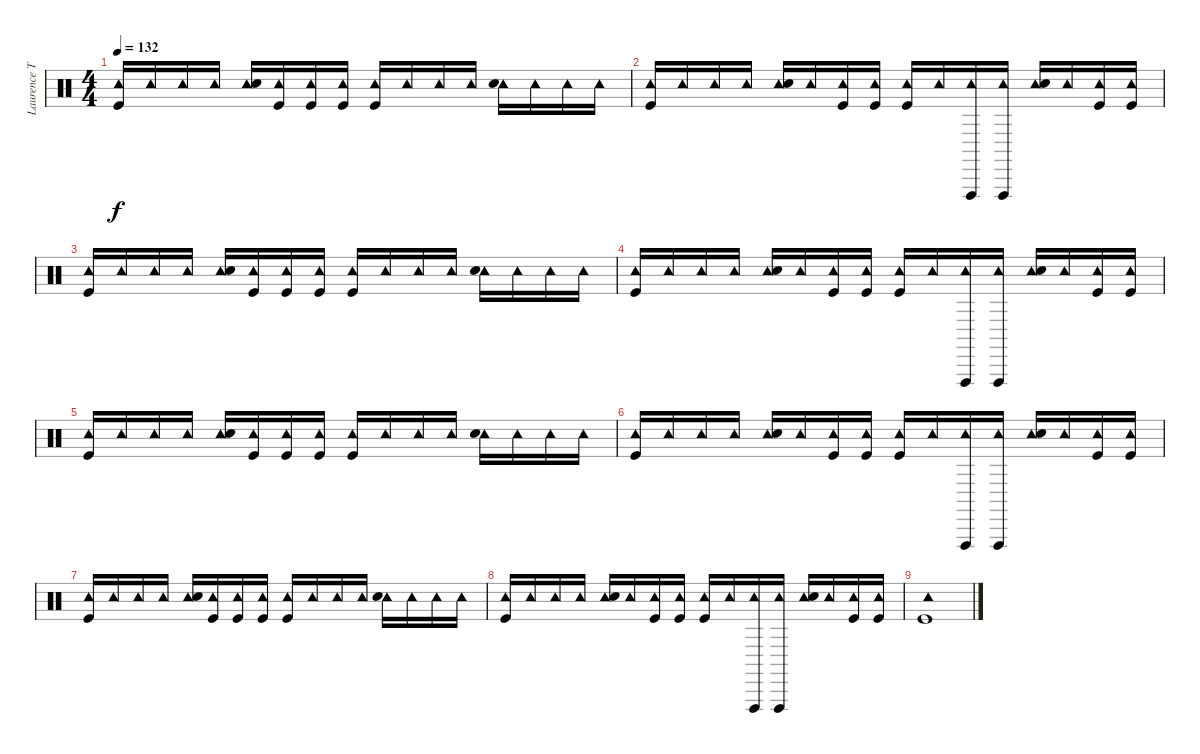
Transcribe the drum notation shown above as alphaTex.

\track ("Laurence Tolhurst (drums)" "Laurence T") {instrument percussion}
\staff {score}
\articulation defaults
\ts (4 4)
\tempo 132
\clef neutral
\ks c
("Tambourine (hit)" "Kick (hit)").16{dy f} "Tambourine (hit)".16 "Tambourine (hit)".16 "Tambourine (hit)".16 ("Tambourine (hit)" "Snare (hit) 2").16 ("Tambourine (hit)" "Kick (hit)").16 ("Tambourine (hit)" "Kick (hit)").16 ("Tambourine (hit)" "Kick (hit)").16 ("Tambourine (hit)" "Kick (hit)").16 "Tambourine (hit)".16 "Tambourine (hit)".16 "Tambourine (hit)".16 ("Tambourine (hit)" "Snare (hit) 2").16 "Tambourine (hit)".16 "Tambourine (hit)".16 "Tambourine (hit)".16 |
("Tambourine (hit)" "Kick (hit)").16 "Tambourine (hit)".16 "Tambourine (hit)".16 "Tambourine (hit)".16 ("Tambourine (hit)" "Snare (hit) 2").16 "Tambourine (hit)".16 ("Tambourine (hit)" "Kick (hit)").16 ("Tambourine (hit)" "Kick (hit)").16 ("Tambourine (hit)" "Kick (hit)").16 "Tambourine (hit)".16 ("Tambourine (hit)" "Vibraslap (hit)").16 ("Tambourine (hit)" "Vibraslap (hit)").16 ("Tambourine (hit)" "Snare (hit) 2").16 "Tambourine (hit)".16 ("Tambourine (hit)" "Kick (hit)").16 ("Tambourine (hit)" "Kick (hit)").16 |
("Tambourine (hit)" "Kick (hit)").16 "Tambourine (hit)".16 "Tambourine (hit)".16 "Tambourine (hit)".16 ("Tambourine (hit)" "Snare (hit) 2").16 ("Tambourine (hit)" "Kick (hit)").16 ("Tambourine (hit)" "Kick (hit)").16 ("Tambourine (hit)" "Kick (hit)").16 ("Tambourine (hit)" "Kick (hit)").16 "Tambourine (hit)".16 "Tambourine (hit)".16 "Tambourine (hit)".16 ("Tambourine (hit)" "Snare (hit) 2").16 "Tambourine (hit)".16 "Tambourine (hit)".16 "Tambourine (hit)".16 |
("Tambourine (hit)" "Kick (hit)").16 "Tambourine (hit)".16 "Tambourine (hit)".16 "Tambourine (hit)".16 ("Tambourine (hit)" "Snare (hit) 2").16 "Tambourine (hit)".16 ("Tambourine (hit)" "Kick (hit)").16 ("Tambourine (hit)" "Kick (hit)").16 ("Tambourine (hit)" "Kick (hit)").16 "Tambourine (hit)".16 ("Tambourine (hit)" "Vibraslap (hit)").16 ("Tambourine (hit)" "Vibraslap (hit)").16 ("Tambourine (hit)" "Snare (hit) 2").16 "Tambourine (hit)".16 ("Tambourine (hit)" "Kick (hit)").16 ("Tambourine (hit)" "Kick (hit)").16 |
("Tambourine (hit)" "Kick (hit)").16 "Tambourine (hit)".16 "Tambourine (hit)".16 "Tambourine (hit)".16 ("Tambourine (hit)" "Snare (hit) 2").16 ("Tambourine (hit)" "Kick (hit)").16 ("Tambourine (hit)" "Kick (hit)").16 ("Tambourine (hit)" "Kick (hit)").16 ("Tambourine (hit)" "Kick (hit)").16 "Tambourine (hit)".16 "Tambourine (hit)".16 "Tambourine (hit)".16 ("Tambourine (hit)" "Snare (hit) 2").16 "Tambourine (hit)".16 "Tambourine (hit)".16 "Tambourine (hit)".16 |
("Tambourine (hit)" "Kick (hit)").16 "Tambourine (hit)".16 "Tambourine (hit)".16 "Tambourine (hit)".16 ("Tambourine (hit)" "Snare (hit) 2").16 "Tambourine (hit)".16 ("Tambourine (hit)" "Kick (hit)").16 ("Tambourine (hit)" "Kick (hit)").16 ("Tambourine (hit)" "Kick (hit)").16 "Tambourine (hit)".16 ("Tambourine (hit)" "Vibraslap (hit)").16 ("Tambourine (hit)" "Vibraslap (hit)").16 ("Tambourine (hit)" "Snare (hit) 2").16 "Tambourine (hit)".16 ("Tambourine (hit)" "Kick (hit)").16 ("Tambourine (hit)" "Kick (hit)").16 |
("Tambourine (hit)" "Kick (hit)").16 "Tambourine (hit)".16 "Tambourine (hit)".16 "Tambourine (hit)".16 ("Tambourine (hit)" "Snare (hit) 2").16 ("Tambourine (hit)" "Kick (hit)").16 ("Tambourine (hit)" "Kick (hit)").16 ("Tambourine (hit)" "Kick (hit)").16 ("Tambourine (hit)" "Kick (hit)").16 "Tambourine (hit)".16 "Tambourine (hit)".16 "Tambourine (hit)".16 ("Tambourine (hit)" "Snare (hit) 2").16 "Tambourine (hit)".16 "Tambourine (hit)".16 "Tambourine (hit)".16 |
("Tambourine (hit)" "Kick (hit)").16 "Tambourine (hit)".16 "Tambourine (hit)".16 "Tambourine (hit)".16 ("Tambourine (hit)" "Snare (hit) 2").16 "Tambourine (hit)".16 ("Tambourine (hit)" "Kick (hit)").16 ("Tambourine (hit)" "Kick (hit)").16 ("Tambourine (hit)" "Kick (hit)").16 "Tambourine (hit)".16 ("Tambourine (hit)" "Vibraslap (hit)").16 ("Tambourine (hit)" "Vibraslap (hit)").16 ("Tambourine (hit)" "Snare (hit) 2").16 "Tambourine (hit)".16 ("Tambourine (hit)" "Kick (hit)").16 ("Tambourine (hit)" "Kick (hit)").16 |
("Tambourine (hit)" "Kick (hit)").1
